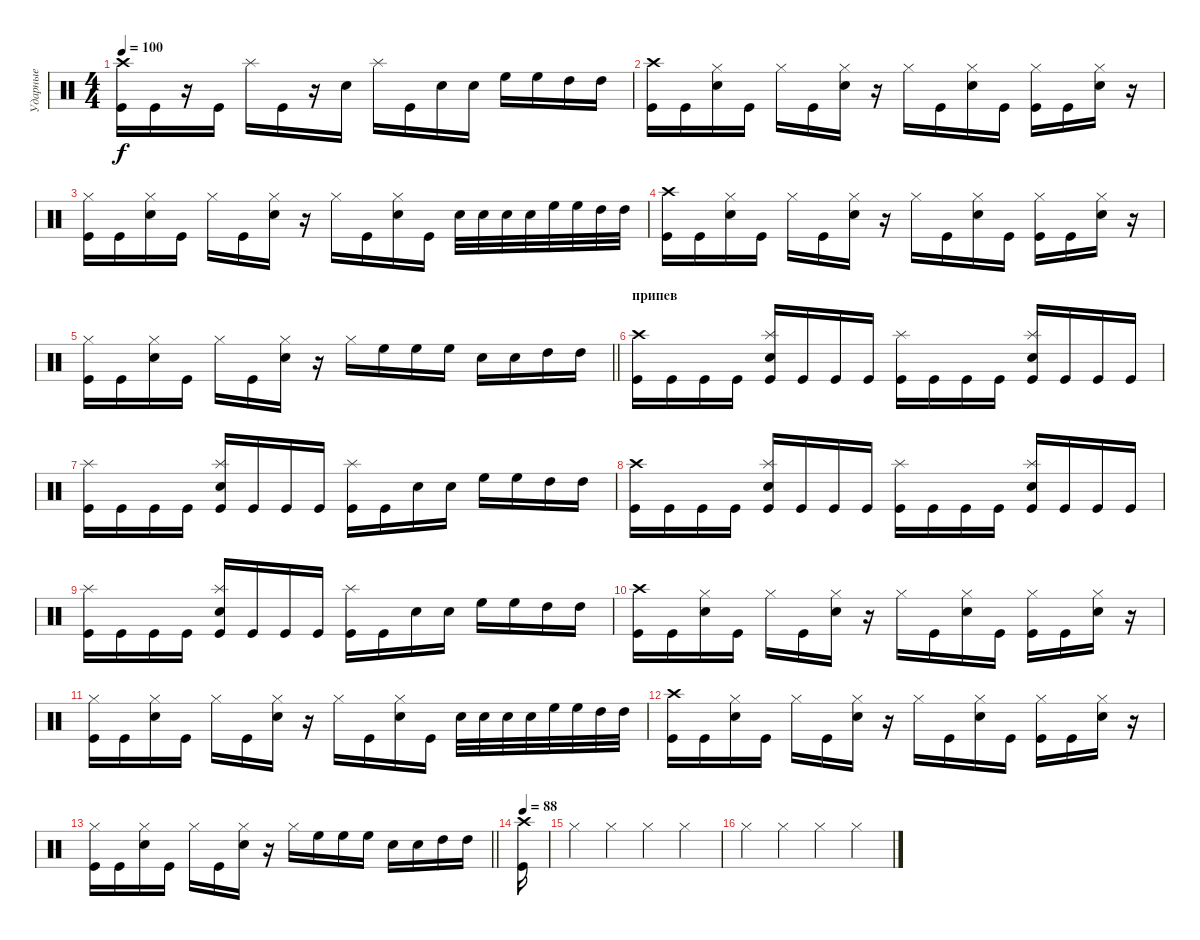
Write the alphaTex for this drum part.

\track ("Ударные" "Ударные") {instrument percussion}
\staff {score}
\articulation defaults
\ts (4 4)
\tempo 100
\clef neutral
\ks c
("Kick (hit)" "Crash high (hit)").16{dy f} "Kick (hit)".16 r.16 "Kick (hit)".16 "Splash (hit)".16 "Kick (hit)".16 r.16 "Snare (hit) 2".16 "Splash (hit)".16 "Kick (hit)".16 "Snare (hit) 2".16 "Snare (hit) 2".16 "High Floor Tom (hit)".16 "High Floor Tom (hit)".16 "High Tom (hit)".16 "High Tom (hit)".16 |
("Kick (hit)" "Crash high (hit)").16 "Kick (hit)".16 ("Snare (hit) 2" "Hi-Hat (closed)").16 "Kick (hit)".16 "Hi-Hat (closed)".16 "Kick (hit)".16 ("Snare (hit) 2" "Hi-Hat (closed)").16 r.16 "Hi-Hat (closed)".16 "Kick (hit)".16 ("Hi-Hat (closed)" "Snare (hit) 2").16 "Kick (hit)".16 ("Kick (hit)" "Hi-Hat (closed)").16 "Kick (hit)".16 ("Snare (hit) 2" "Hi-Hat (closed)").16 r.16 |
("Kick (hit)" "Hi-Hat (closed)").16 "Kick (hit)".16 ("Snare (hit) 2" "Hi-Hat (closed)").16 "Kick (hit)".16 "Hi-Hat (closed)".16 "Kick (hit)".16 ("Snare (hit) 2" "Hi-Hat (closed)").16 r.16 "Hi-Hat (closed)".16 "Kick (hit)".16 ("Hi-Hat (closed)" "Snare (hit) 2").16 "Kick (hit)".16 "Snare (hit) 2".32 "Snare (hit) 2".32 "Snare (hit) 2".32 "Snare (hit) 2".32 "High Floor Tom (hit)".32 "High Floor Tom (hit)".32 "High Tom (hit)".32 "High Tom (hit)".32 |
("Kick (hit)" "Crash high (hit)").16 "Kick (hit)".16 ("Snare (hit) 2" "Hi-Hat (closed)").16 "Kick (hit)".16 "Hi-Hat (closed)".16 "Kick (hit)".16 ("Snare (hit) 2" "Hi-Hat (closed)").16 r.16 "Hi-Hat (closed)".16 "Kick (hit)".16 ("Hi-Hat (closed)" "Snare (hit) 2").16 "Kick (hit)".16 ("Kick (hit)" "Hi-Hat (closed)").16 "Kick (hit)".16 ("Snare (hit) 2" "Hi-Hat (closed)").16 r.16 |
\barLineRight lightlight
("Kick (hit)" "Hi-Hat (closed)").16 "Kick (hit)".16 ("Snare (hit) 2" "Hi-Hat (closed)").16 "Kick (hit)".16 "Hi-Hat (closed)".16 "Kick (hit)".16 ("Snare (hit) 2" "Hi-Hat (closed)").16 r.16 "Hi-Hat (closed)".16 "High Floor Tom (hit)".16 "High Floor Tom (hit)".16 "High Floor Tom (hit)".16 "Snare (hit) 2".16 "Snare (hit) 2".16 "High Tom (hit)".16 "High Tom (hit)".16 |
\section ("" "припев")
("Crash high (hit)" "Kick (hit)").16 "Kick (hit)".16 "Kick (hit)".16 "Kick (hit)".16 ("Snare (hit) 2" "Kick (hit)" "Splash (hit)").16 "Kick (hit)".16 "Kick (hit)".16 "Kick (hit)".16 ("Kick (hit)" "Splash (hit)").16 "Kick (hit)".16 "Kick (hit)".16 "Kick (hit)".16 ("Snare (hit) 2" "Kick (hit)" "Splash (hit)").16 "Kick (hit)".16 "Kick (hit)".16 "Kick (hit)".16 |
("Splash (hit)" "Kick (hit)").16 "Kick (hit)".16 "Kick (hit)".16 "Kick (hit)".16 ("Snare (hit) 2" "Kick (hit)" "Splash (hit)").16 "Kick (hit)".16 "Kick (hit)".16 "Kick (hit)".16 ("Kick (hit)" "Splash (hit)").16 "Kick (hit)".16 "Snare (hit) 2".16 "Snare (hit) 2".16 "High Floor Tom (hit)".16 "High Floor Tom (hit)".16 "High Tom (hit)".16 "High Tom (hit)".16 |
("Crash high (hit)" "Kick (hit)").16 "Kick (hit)".16 "Kick (hit)".16 "Kick (hit)".16 ("Snare (hit) 2" "Kick (hit)" "Splash (hit)").16 "Kick (hit)".16 "Kick (hit)".16 "Kick (hit)".16 ("Kick (hit)" "Splash (hit)").16 "Kick (hit)".16 "Kick (hit)".16 "Kick (hit)".16 ("Snare (hit) 2" "Kick (hit)" "Splash (hit)").16 "Kick (hit)".16 "Kick (hit)".16 "Kick (hit)".16 |
("Splash (hit)" "Kick (hit)").16 "Kick (hit)".16 "Kick (hit)".16 "Kick (hit)".16 ("Snare (hit) 2" "Kick (hit)" "Splash (hit)").16 "Kick (hit)".16 "Kick (hit)".16 "Kick (hit)".16 ("Kick (hit)" "Splash (hit)").16 "Kick (hit)".16 "Snare (hit) 2".16 "Snare (hit) 2".16 "High Floor Tom (hit)".16 "High Floor Tom (hit)".16 "High Tom (hit)".16 "High Tom (hit)".16 |
("Kick (hit)" "Crash high (hit)").16 "Kick (hit)".16 ("Snare (hit) 2" "Hi-Hat (closed)").16 "Kick (hit)".16 "Hi-Hat (closed)".16 "Kick (hit)".16 ("Snare (hit) 2" "Hi-Hat (closed)").16 r.16 "Hi-Hat (closed)".16 "Kick (hit)".16 ("Hi-Hat (closed)" "Snare (hit) 2").16 "Kick (hit)".16 ("Kick (hit)" "Hi-Hat (closed)").16 "Kick (hit)".16 ("Snare (hit) 2" "Hi-Hat (closed)").16 r.16 |
("Kick (hit)" "Hi-Hat (closed)").16 "Kick (hit)".16 ("Snare (hit) 2" "Hi-Hat (closed)").16 "Kick (hit)".16 "Hi-Hat (closed)".16 "Kick (hit)".16 ("Snare (hit) 2" "Hi-Hat (closed)").16 r.16 "Hi-Hat (closed)".16 "Kick (hit)".16 ("Hi-Hat (closed)" "Snare (hit) 2").16 "Kick (hit)".16 "Snare (hit) 2".32 "Snare (hit) 2".32 "Snare (hit) 2".32 "Snare (hit) 2".32 "High Floor Tom (hit)".32 "High Floor Tom (hit)".32 "High Tom (hit)".32 "High Tom (hit)".32 |
("Kick (hit)" "Crash high (hit)").16 "Kick (hit)".16 ("Snare (hit) 2" "Hi-Hat (closed)").16 "Kick (hit)".16 "Hi-Hat (closed)".16 "Kick (hit)".16 ("Snare (hit) 2" "Hi-Hat (closed)").16 r.16 "Hi-Hat (closed)".16 "Kick (hit)".16 ("Hi-Hat (closed)" "Snare (hit) 2").16 "Kick (hit)".16 ("Kick (hit)" "Hi-Hat (closed)").16 "Kick (hit)".16 ("Snare (hit) 2" "Hi-Hat (closed)").16 r.16 |
\barLineRight lightlight
("Kick (hit)" "Hi-Hat (closed)").16 "Kick (hit)".16 ("Snare (hit) 2" "Hi-Hat (closed)").16 "Kick (hit)".16 "Hi-Hat (closed)".16 "Kick (hit)".16 ("Snare (hit) 2" "Hi-Hat (closed)").16 r.16 "Hi-Hat (closed)".16 "High Floor Tom (hit)".16 "High Floor Tom (hit)".16 "High Floor Tom (hit)".16 "Snare (hit) 2".16 "Snare (hit) 2".16 "High Tom (hit)".16 "High Tom (hit)".16 |
\tempo 88
("Kick (hit)" "Crash high (hit)").16 |
"Hi-Hat (closed)".4 "Hi-Hat (closed)".4 "Hi-Hat (closed)".4 "Hi-Hat (closed)".4 |
"Hi-Hat (closed)".4 "Hi-Hat (closed)".4 "Hi-Hat (closed)".4 "Hi-Hat (closed)".4
